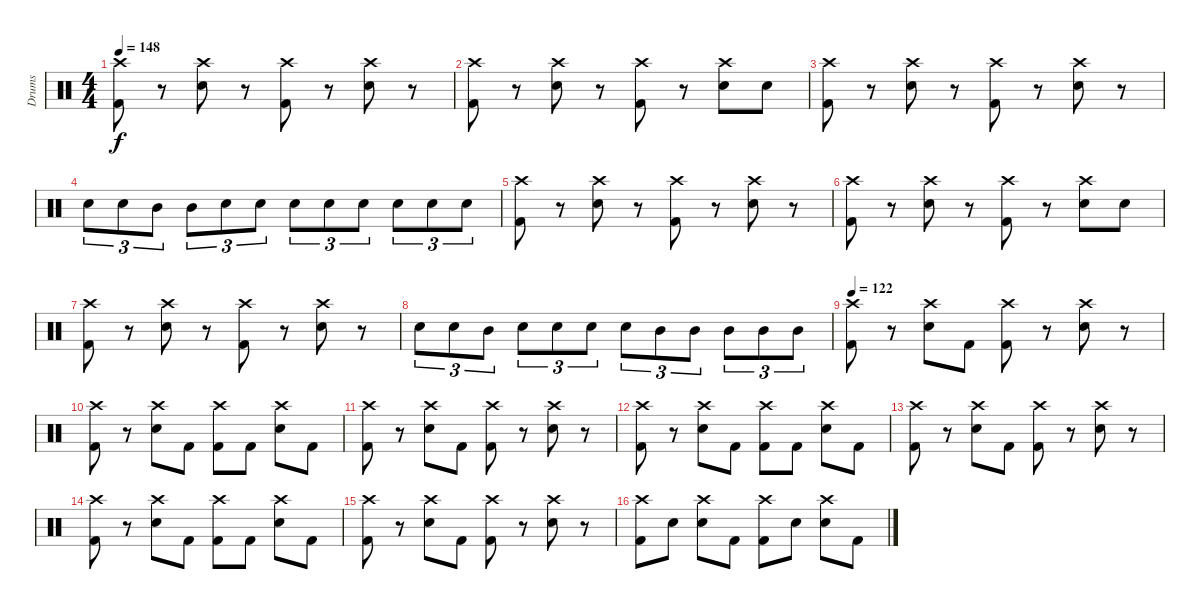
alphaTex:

\track ("Drums" "Drums") {instrument percussion}
\staff {score}
\articulation defaults
\ts (4 4)
\tempo 148
\clef neutral
\ks c
("Crash high (hit)" "Kick (hit) 2").8{dy f} r.8 ("Crash high (hit)" "Electric Snare (hit)").8 r.8 ("Crash high (hit)" "Kick (hit) 2").8 r.8 ("Crash high (hit)" "Electric Snare (hit)").8 r.8 |
("Crash high (hit)" "Kick (hit) 2").8 r.8 ("Crash high (hit)" "Electric Snare (hit)").8 r.8 ("Crash high (hit)" "Kick (hit) 2").8 r.8 ("Crash high (hit)" "Electric Snare (hit)").8 "Electric Snare (hit)".8 |
("Crash high (hit)" "Kick (hit) 2").8 r.8 ("Crash high (hit)" "Electric Snare (hit)").8 r.8 ("Crash high (hit)" "Kick (hit) 2").8 r.8 ("Crash high (hit)" "Electric Snare (hit)").8 r.8 |
"Electric Snare (hit)".8{tu (3 2)} "Electric Snare (hit)".8{tu (3 2)} "Mid Tom (hit)".8{tu (3 2)} "Mid Tom (hit)".8{tu (3 2)} "Electric Snare (hit)".8{tu (3 2)} "Electric Snare (hit)".8{tu (3 2)} "Electric Snare (hit)".8{tu (3 2)} "Electric Snare (hit)".8{tu (3 2)} "Electric Snare (hit)".8{tu (3 2)} "Electric Snare (hit)".8{tu (3 2)} "Electric Snare (hit)".8{tu (3 2)} "Electric Snare (hit)".8{tu (3 2)} |
("Crash high (hit)" "Kick (hit) 2").8 r.8 ("Crash high (hit)" "Electric Snare (hit)").8 r.8 ("Crash high (hit)" "Kick (hit) 2").8 r.8 ("Crash high (hit)" "Electric Snare (hit)").8 r.8 |
("Crash high (hit)" "Kick (hit) 2").8 r.8 ("Crash high (hit)" "Electric Snare (hit)").8 r.8 ("Crash high (hit)" "Kick (hit) 2").8 r.8 ("Crash high (hit)" "Electric Snare (hit)").8 "Electric Snare (hit)".8 |
("Crash high (hit)" "Kick (hit) 2").8 r.8 ("Crash high (hit)" "Electric Snare (hit)").8 r.8 ("Crash high (hit)" "Kick (hit) 2").8 r.8 ("Crash high (hit)" "Electric Snare (hit)").8 r.8 |
"Electric Snare (hit)".8{tu (3 2)} "Electric Snare (hit)".8{tu (3 2)} "Mid Tom (hit)".8{tu (3 2)} "Electric Snare (hit)".8{tu (3 2)} "Electric Snare (hit)".8{tu (3 2)} "Electric Snare (hit)".8{tu (3 2)} "Electric Snare (hit)".8{tu (3 2)} "Mid Tom (hit)".8{tu (3 2)} "Mid Tom (hit)".8{tu (3 2)} "Mid Tom (hit)".8{tu (3 2)} "Mid Tom (hit)".8{tu (3 2)} "Mid Tom (hit)".8{tu (3 2)} |
\tempo 122
("Crash high (hit)" "Kick (hit) 2").8 r.8 ("Crash high (hit)" "Electric Snare (hit)").8 "Kick (hit) 2".8 ("Crash high (hit)" "Kick (hit) 2").8 r.8 ("Crash high (hit)" "Electric Snare (hit)").8 r.8 |
("Crash high (hit)" "Kick (hit) 2").8 r.8 ("Crash high (hit)" "Electric Snare (hit)").8 "Kick (hit) 2".8 ("Crash high (hit)" "Kick (hit) 2").8 "Kick (hit) 2".8 ("Crash high (hit)" "Electric Snare (hit)").8 "Kick (hit) 2".8 |
("Crash high (hit)" "Kick (hit) 2").8 r.8 ("Crash high (hit)" "Electric Snare (hit)").8 "Kick (hit) 2".8 ("Crash high (hit)" "Kick (hit) 2").8 r.8 ("Crash high (hit)" "Electric Snare (hit)").8 r.8 |
("Crash high (hit)" "Kick (hit) 2").8 r.8 ("Crash high (hit)" "Electric Snare (hit)").8 "Kick (hit) 2".8 ("Crash high (hit)" "Kick (hit) 2").8 "Kick (hit) 2".8 ("Crash high (hit)" "Electric Snare (hit)").8 "Kick (hit) 2".8 |
("Crash high (hit)" "Kick (hit) 2").8 r.8 ("Crash high (hit)" "Electric Snare (hit)").8 "Kick (hit) 2".8 ("Crash high (hit)" "Kick (hit) 2").8 r.8 ("Crash high (hit)" "Electric Snare (hit)").8 r.8 |
("Crash high (hit)" "Kick (hit) 2").8 r.8 ("Crash high (hit)" "Electric Snare (hit)").8 "Kick (hit) 2".8 ("Crash high (hit)" "Kick (hit) 2").8 "Kick (hit) 2".8 ("Crash high (hit)" "Electric Snare (hit)").8 "Kick (hit) 2".8 |
("Crash high (hit)" "Kick (hit) 2").8 r.8 ("Crash high (hit)" "Electric Snare (hit)").8 "Kick (hit) 2".8 ("Crash high (hit)" "Kick (hit) 2").8 r.8 ("Crash high (hit)" "Electric Snare (hit)").8 r.8 |
("Crash high (hit)" "Kick (hit) 2").8 "Electric Snare (hit)".8 ("Crash high (hit)" "Electric Snare (hit)").8 "Kick (hit) 2".8 ("Crash high (hit)" "Kick (hit) 2").8 "Electric Snare (hit)".8 ("Crash high (hit)" "Electric Snare (hit)").8 "Kick (hit) 2".8
